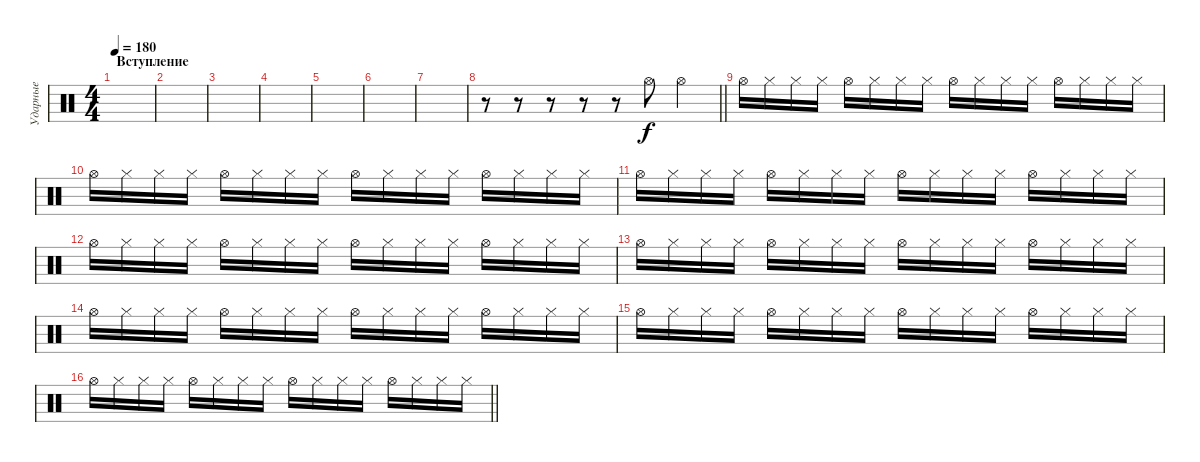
\track ("Ударные" "Ударные") {instrument percussion}
\staff {score}
\articulation defaults
\ts (4 4)
\section ("" "Вступление")
\tempo 180
\clef neutral
\ks c
|
|
|
|
|
|
|
\barLineRight lightlight
r.8 r.8 r.8 r.8 r.8 "Hi-Hat (open)".8 "Hi-Hat (open)".4 |
\section ("" "")
"Hi-Hat (open)".16 "Hi-Hat (closed)".16 "Hi-Hat (closed)".16 "Hi-Hat (closed)".16 "Hi-Hat (open)".16 "Hi-Hat (closed)".16 "Hi-Hat (closed)".16 "Hi-Hat (closed)".16 "Hi-Hat (open)".16 "Hi-Hat (closed)".16 "Hi-Hat (closed)".16 "Hi-Hat (closed)".16 "Hi-Hat (open)".16 "Hi-Hat (closed)".16 "Hi-Hat (closed)".16 "Hi-Hat (closed)".16 |
"Hi-Hat (open)".16 "Hi-Hat (closed)".16 "Hi-Hat (closed)".16 "Hi-Hat (closed)".16 "Hi-Hat (open)".16 "Hi-Hat (closed)".16 "Hi-Hat (closed)".16 "Hi-Hat (closed)".16 "Hi-Hat (open)".16 "Hi-Hat (closed)".16 "Hi-Hat (closed)".16 "Hi-Hat (closed)".16 "Hi-Hat (open)".16 "Hi-Hat (closed)".16 "Hi-Hat (closed)".16 "Hi-Hat (closed)".16 |
"Hi-Hat (open)".16 "Hi-Hat (closed)".16 "Hi-Hat (closed)".16 "Hi-Hat (closed)".16 "Hi-Hat (open)".16 "Hi-Hat (closed)".16 "Hi-Hat (closed)".16 "Hi-Hat (closed)".16 "Hi-Hat (open)".16 "Hi-Hat (closed)".16 "Hi-Hat (closed)".16 "Hi-Hat (closed)".16 "Hi-Hat (open)".16 "Hi-Hat (closed)".16 "Hi-Hat (closed)".16 "Hi-Hat (closed)".16 |
"Hi-Hat (open)".16 "Hi-Hat (closed)".16 "Hi-Hat (closed)".16 "Hi-Hat (closed)".16 "Hi-Hat (open)".16 "Hi-Hat (closed)".16 "Hi-Hat (closed)".16 "Hi-Hat (closed)".16 "Hi-Hat (open)".16 "Hi-Hat (closed)".16 "Hi-Hat (closed)".16 "Hi-Hat (closed)".16 "Hi-Hat (open)".16 "Hi-Hat (closed)".16 "Hi-Hat (closed)".16 "Hi-Hat (closed)".16 |
"Hi-Hat (open)".16 "Hi-Hat (closed)".16 "Hi-Hat (closed)".16 "Hi-Hat (closed)".16 "Hi-Hat (open)".16 "Hi-Hat (closed)".16 "Hi-Hat (closed)".16 "Hi-Hat (closed)".16 "Hi-Hat (open)".16 "Hi-Hat (closed)".16 "Hi-Hat (closed)".16 "Hi-Hat (closed)".16 "Hi-Hat (open)".16 "Hi-Hat (closed)".16 "Hi-Hat (closed)".16 "Hi-Hat (closed)".16 |
"Hi-Hat (open)".16 "Hi-Hat (closed)".16 "Hi-Hat (closed)".16 "Hi-Hat (closed)".16 "Hi-Hat (open)".16 "Hi-Hat (closed)".16 "Hi-Hat (closed)".16 "Hi-Hat (closed)".16 "Hi-Hat (open)".16 "Hi-Hat (closed)".16 "Hi-Hat (closed)".16 "Hi-Hat (closed)".16 "Hi-Hat (open)".16 "Hi-Hat (closed)".16 "Hi-Hat (closed)".16 "Hi-Hat (closed)".16 |
"Hi-Hat (open)".16 "Hi-Hat (closed)".16 "Hi-Hat (closed)".16 "Hi-Hat (closed)".16 "Hi-Hat (open)".16 "Hi-Hat (closed)".16 "Hi-Hat (closed)".16 "Hi-Hat (closed)".16 "Hi-Hat (open)".16 "Hi-Hat (closed)".16 "Hi-Hat (closed)".16 "Hi-Hat (closed)".16 "Hi-Hat (open)".16 "Hi-Hat (closed)".16 "Hi-Hat (closed)".16 "Hi-Hat (closed)".16 |
\barLineRight lightlight "Hi-Hat (open)".16 "Hi-Hat (closed)".16 "Hi-Hat (closed)".16 "Hi-Hat (closed)".16 "Hi-Hat (open)".16 "Hi-Hat (closed)".16 "Hi-Hat (closed)".16 "Hi-Hat (closed)".16 "Hi-Hat (open)".16 "Hi-Hat (closed)".16 "Hi-Hat (closed)".16 "Hi-Hat (closed)".16 "Hi-Hat (open)".16 "Hi-Hat (closed)".16 "Hi-Hat (closed)".16 "Hi-Hat (closed)".16
